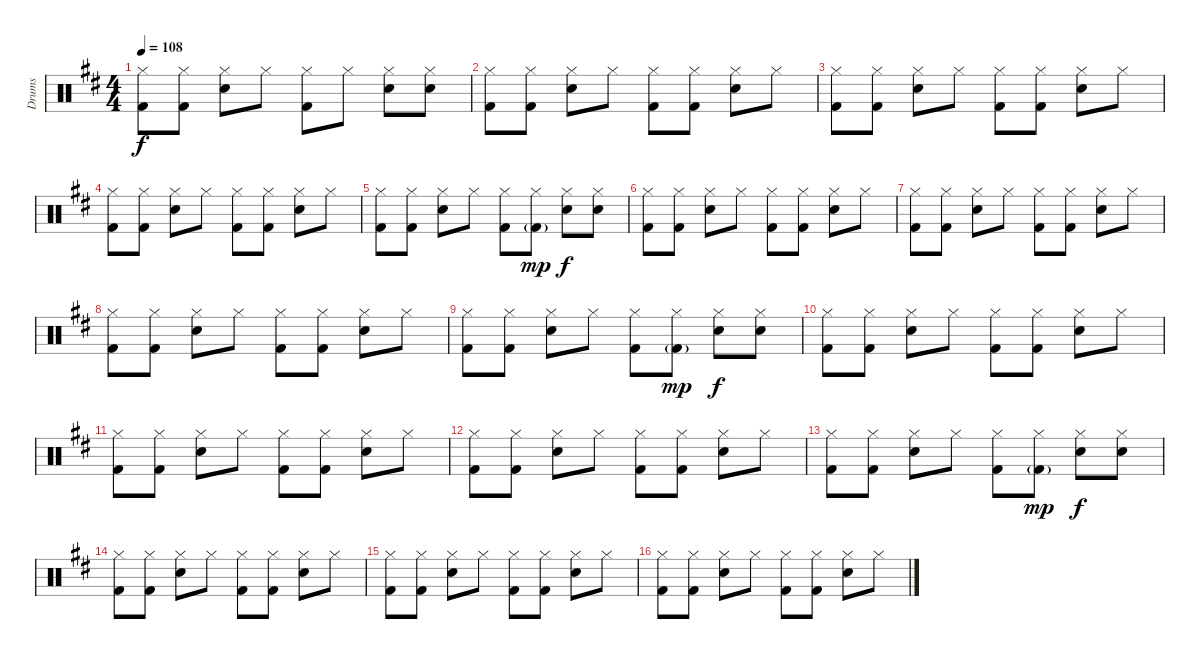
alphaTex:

\track ("Drums" "Drums") {instrument percussion}
\staff {score}
\articulation defaults
\ts (4 4)
\tempo 108
\clef neutral
\ks d
("Hi-Hat (closed)" "Kick (hit) 2").8{dy f} ("Hi-Hat (closed)" "Kick (hit) 2").8 ("Hi-Hat (closed)" "Electric Snare (hit)").8 "Hi-Hat (closed)".8 ("Hi-Hat (closed)" "Kick (hit) 2").8 "Hi-Hat (closed)".8 ("Hi-Hat (closed)" "Electric Snare (hit)").8 ("Hi-Hat (closed)" "Electric Snare (hit)").8 |
("Hi-Hat (closed)" "Kick (hit) 2").8 ("Hi-Hat (closed)" "Kick (hit) 2").8 ("Hi-Hat (closed)" "Electric Snare (hit)").8 "Hi-Hat (closed)".8 ("Hi-Hat (closed)" "Kick (hit) 2").8 ("Hi-Hat (closed)" "Kick (hit) 2").8 ("Hi-Hat (closed)" "Electric Snare (hit)").8 "Hi-Hat (closed)".8 |
("Hi-Hat (closed)" "Kick (hit) 2").8 ("Hi-Hat (closed)" "Kick (hit) 2").8 ("Hi-Hat (closed)" "Electric Snare (hit)").8 "Hi-Hat (closed)".8 ("Hi-Hat (closed)" "Kick (hit) 2").8 ("Hi-Hat (closed)" "Kick (hit) 2").8 ("Hi-Hat (closed)" "Electric Snare (hit)").8 "Hi-Hat (closed)".8 |
("Hi-Hat (closed)" "Kick (hit) 2").8 ("Hi-Hat (closed)" "Kick (hit) 2").8 ("Hi-Hat (closed)" "Electric Snare (hit)").8 "Hi-Hat (closed)".8 ("Hi-Hat (closed)" "Kick (hit) 2").8 ("Hi-Hat (closed)" "Kick (hit) 2").8 ("Hi-Hat (closed)" "Electric Snare (hit)").8 "Hi-Hat (closed)".8 |
("Hi-Hat (closed)" "Kick (hit) 2").8 ("Hi-Hat (closed)" "Kick (hit) 2").8 ("Hi-Hat (closed)" "Electric Snare (hit)").8 "Hi-Hat (closed)".8 ("Hi-Hat (closed)" "Kick (hit) 2").8 ("Hi-Hat (closed)" "Kick (hit) 2"{g}).8{dy mp} ("Hi-Hat (closed)" "Electric Snare (hit)").8{dy f} ("Hi-Hat (closed)" "Electric Snare (hit)").8 |
("Hi-Hat (closed)" "Kick (hit) 2").8 ("Hi-Hat (closed)" "Kick (hit) 2").8 ("Hi-Hat (closed)" "Electric Snare (hit)").8 "Hi-Hat (closed)".8 ("Hi-Hat (closed)" "Kick (hit) 2").8 ("Hi-Hat (closed)" "Kick (hit) 2").8 ("Hi-Hat (closed)" "Electric Snare (hit)").8 "Hi-Hat (closed)".8 |
("Hi-Hat (closed)" "Kick (hit) 2").8 ("Hi-Hat (closed)" "Kick (hit) 2").8 ("Hi-Hat (closed)" "Electric Snare (hit)").8 "Hi-Hat (closed)".8 ("Hi-Hat (closed)" "Kick (hit) 2").8 ("Hi-Hat (closed)" "Kick (hit) 2").8 ("Hi-Hat (closed)" "Electric Snare (hit)").8 "Hi-Hat (closed)".8 |
("Hi-Hat (closed)" "Kick (hit) 2").8 ("Hi-Hat (closed)" "Kick (hit) 2").8 ("Hi-Hat (closed)" "Electric Snare (hit)").8 "Hi-Hat (closed)".8 ("Hi-Hat (closed)" "Kick (hit) 2").8 ("Hi-Hat (closed)" "Kick (hit) 2").8 ("Hi-Hat (closed)" "Electric Snare (hit)").8 "Hi-Hat (closed)".8 |
("Hi-Hat (closed)" "Kick (hit) 2").8 ("Hi-Hat (closed)" "Kick (hit) 2").8 ("Hi-Hat (closed)" "Electric Snare (hit)").8 "Hi-Hat (closed)".8 ("Hi-Hat (closed)" "Kick (hit) 2").8 ("Hi-Hat (closed)" "Kick (hit) 2"{g}).8{dy mp} ("Hi-Hat (closed)" "Electric Snare (hit)").8{dy f} ("Hi-Hat (closed)" "Electric Snare (hit)").8 |
("Hi-Hat (closed)" "Kick (hit) 2").8 ("Hi-Hat (closed)" "Kick (hit) 2").8 ("Hi-Hat (closed)" "Electric Snare (hit)").8 "Hi-Hat (closed)".8 ("Hi-Hat (closed)" "Kick (hit) 2").8 ("Hi-Hat (closed)" "Kick (hit) 2").8 ("Hi-Hat (closed)" "Electric Snare (hit)").8 "Hi-Hat (closed)".8 |
("Hi-Hat (closed)" "Kick (hit) 2").8 ("Hi-Hat (closed)" "Kick (hit) 2").8 ("Hi-Hat (closed)" "Electric Snare (hit)").8 "Hi-Hat (closed)".8 ("Hi-Hat (closed)" "Kick (hit) 2").8 ("Hi-Hat (closed)" "Kick (hit) 2").8 ("Hi-Hat (closed)" "Electric Snare (hit)").8 "Hi-Hat (closed)".8 |
("Hi-Hat (closed)" "Kick (hit) 2").8 ("Hi-Hat (closed)" "Kick (hit) 2").8 ("Hi-Hat (closed)" "Electric Snare (hit)").8 "Hi-Hat (closed)".8 ("Hi-Hat (closed)" "Kick (hit) 2").8 ("Hi-Hat (closed)" "Kick (hit) 2").8 ("Hi-Hat (closed)" "Electric Snare (hit)").8 "Hi-Hat (closed)".8 |
("Hi-Hat (closed)" "Kick (hit) 2").8 ("Hi-Hat (closed)" "Kick (hit) 2").8 ("Hi-Hat (closed)" "Electric Snare (hit)").8 "Hi-Hat (closed)".8 ("Hi-Hat (closed)" "Kick (hit) 2").8 ("Hi-Hat (closed)" "Kick (hit) 2"{g}).8{dy mp} ("Hi-Hat (closed)" "Electric Snare (hit)").8{dy f} ("Hi-Hat (closed)" "Electric Snare (hit)").8 |
("Hi-Hat (closed)" "Kick (hit) 2").8 ("Hi-Hat (closed)" "Kick (hit) 2").8 ("Hi-Hat (closed)" "Electric Snare (hit)").8 "Hi-Hat (closed)".8 ("Hi-Hat (closed)" "Kick (hit) 2").8 ("Hi-Hat (closed)" "Kick (hit) 2").8 ("Hi-Hat (closed)" "Electric Snare (hit)").8 "Hi-Hat (closed)".8 |
("Hi-Hat (closed)" "Kick (hit) 2").8 ("Hi-Hat (closed)" "Kick (hit) 2").8 ("Hi-Hat (closed)" "Electric Snare (hit)").8 "Hi-Hat (closed)".8 ("Hi-Hat (closed)" "Kick (hit) 2").8 ("Hi-Hat (closed)" "Kick (hit) 2").8 ("Hi-Hat (closed)" "Electric Snare (hit)").8 "Hi-Hat (closed)".8 |
("Hi-Hat (closed)" "Kick (hit) 2").8 ("Hi-Hat (closed)" "Kick (hit) 2").8 ("Hi-Hat (closed)" "Electric Snare (hit)").8 "Hi-Hat (closed)".8 ("Hi-Hat (closed)" "Kick (hit) 2").8 ("Hi-Hat (closed)" "Kick (hit) 2").8 ("Hi-Hat (closed)" "Electric Snare (hit)").8 "Hi-Hat (closed)".8
